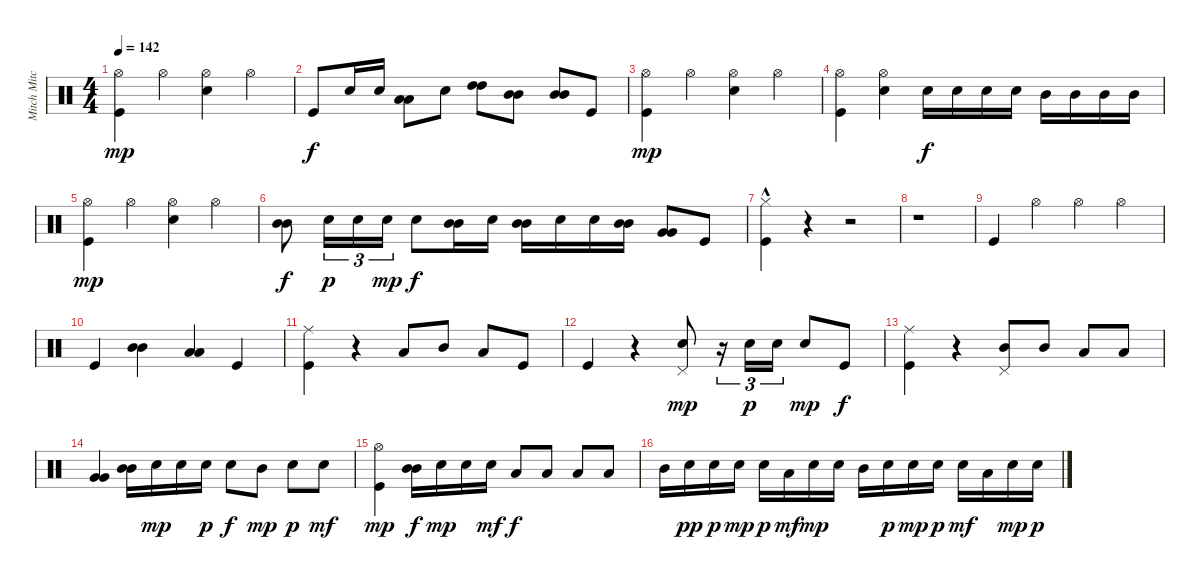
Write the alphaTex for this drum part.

\track ("Mitch Mitchell" "Mitch Mitc") {instrument percussion}
\staff {score}
\articulation defaults
\ts (4 4)
\tempo 142
\clef neutral
\ks c
("Hi-Hat (open)" "Kick (hit)").4{dy mp} "Hi-Hat (open)".4 ("Hi-Hat (open)" "Electric Snare (hit)").4 "Hi-Hat (open)".4 |
"Kick (hit)".8{dy f} "Electric Snare (hit)".16 "Electric Snare (hit)".16 ("Low Tom (hit)" "Low Tom (hit)").8 "Electric Snare (hit)".8 ("High Tom (hit)" "High Tom (hit)").8 ("Mid Tom (hit)" "Mid Tom (hit)").8 ("Mid Tom (hit)" "Mid Tom (hit)").8 "Kick (hit)".8 |
("Hi-Hat (open)" "Kick (hit)").4{dy mp} "Hi-Hat (open)".4 ("Hi-Hat (open)" "Electric Snare (hit)").4 "Hi-Hat (open)".4 |
("Hi-Hat (open)" "Kick (hit)").4 ("Hi-Hat (open)" "Electric Snare (hit)").4 "Electric Snare (hit)".16{dy f} "Electric Snare (hit)".16 "Electric Snare (hit)".16 "Electric Snare (hit)".16 "Mid Tom (hit)".16 "Mid Tom (hit)".16 "Mid Tom (hit)".16 "Mid Tom (hit)".16 |
("Hi-Hat (open)" "Kick (hit)").4{dy mp} "Hi-Hat (open)".4 ("Hi-Hat (open)" "Electric Snare (hit)").4 "Hi-Hat (open)".4 |
("Mid Tom (hit)" "Mid Tom (hit)").8{dy f} "Electric Snare (hit)".16{tu (3 2) dy p} "Electric Snare (hit)".16{tu (3 2)} "Electric Snare (hit)".16{tu (3 2) dy mp} "Electric Snare (hit)".8{dy f} ("Mid Tom (hit)" "Mid Tom (hit)").16 "Electric Snare (hit)".16 ("Mid Tom (hit)" "Mid Tom (hit)").16 "Electric Snare (hit)".16 "Electric Snare (hit)".16 ("Mid Tom (hit)" "Mid Tom (hit)").16 ("Very Low Tom (hit)" "Very Low Tom (hit)").8 "Kick (hit)".8 |
("Hi-Hat (closed)"{hac} "Kick (hit)").4 r.4 r.2 |
r.1 |
"Kick (hit)".4 "Hi-Hat (open)".4 "Hi-Hat (open)".4 "Hi-Hat (open)".4 |
"Kick (hit)".4 ("Mid Tom (hit)" "Mid Tom (hit)").4 ("Low Tom (hit)" "Low Tom (hit)").4 "Kick (hit)".4 |
("Ride (middle)" "Kick (hit)").4 r.4 "Low Tom (hit)".8 "Mid Tom (hit)".8 "Low Tom (hit)".8 "Kick (hit)".8 |
"Kick (hit)".4 r.4 ("Pedal Hi-Hat (hit)" "Electric Snare (hit)").8{dy mp} r.16{tu (3 2)} "Electric Snare (hit)".16{tu (3 2) dy p} "Electric Snare (hit)".16{tu (3 2)} "Electric Snare (hit)".8{dy mp} "Kick (hit)".8{dy f} |
("Ride (middle)" "Kick (hit)").4 r.4 ("Pedal Hi-Hat (hit)" "Mid Tom (hit)").8 "Mid Tom (hit)".8 "Low Tom (hit)".8 "Low Tom (hit)".8 |
("Very Low Tom (hit)" "Very Low Tom (hit)").4 ("Mid Tom (hit)" "Mid Tom (hit)").16 "Electric Snare (hit)".16{dy mp} "Electric Snare (hit)".16 "Electric Snare (hit)".16{dy p} "Electric Snare (hit)".8{dy f} "Mid Tom (hit)".8{dy mp} "Electric Snare (hit)".8{dy p} "Electric Snare (hit)".8{dy mf} |
("Hi-Hat (open)" "Kick (hit)").4{dy mp} ("Mid Tom (hit)" "Mid Tom (hit)").16{dy f} "Electric Snare (hit)".16{dy mp} "Electric Snare (hit)".16 "Electric Snare (hit)".16{dy mf} "Low Tom (hit)".8{dy f} "Low Tom (hit)".8 "Low Tom (hit)".8 "Low Tom (hit)".8 |
"Mid Tom (hit)".16 "Electric Snare (hit)".16{dy pp} "Electric Snare (hit)".16{dy p} "Electric Snare (hit)".16{dy mp} "Electric Snare (hit)".16{dy p} "Low Tom (hit)".16{dy mf} "Electric Snare (hit)".16{dy mp} "Electric Snare (hit)".16 "Mid Tom (hit)".16 "Electric Snare (hit)".16{dy p} "Electric Snare (hit)".16{dy mp} "Electric Snare (hit)".16{dy p} "Electric Snare (hit)".16{dy mf} "Low Tom (hit)".16 "Electric Snare (hit)".16{dy mp} "Electric Snare (hit)".16{dy p}
